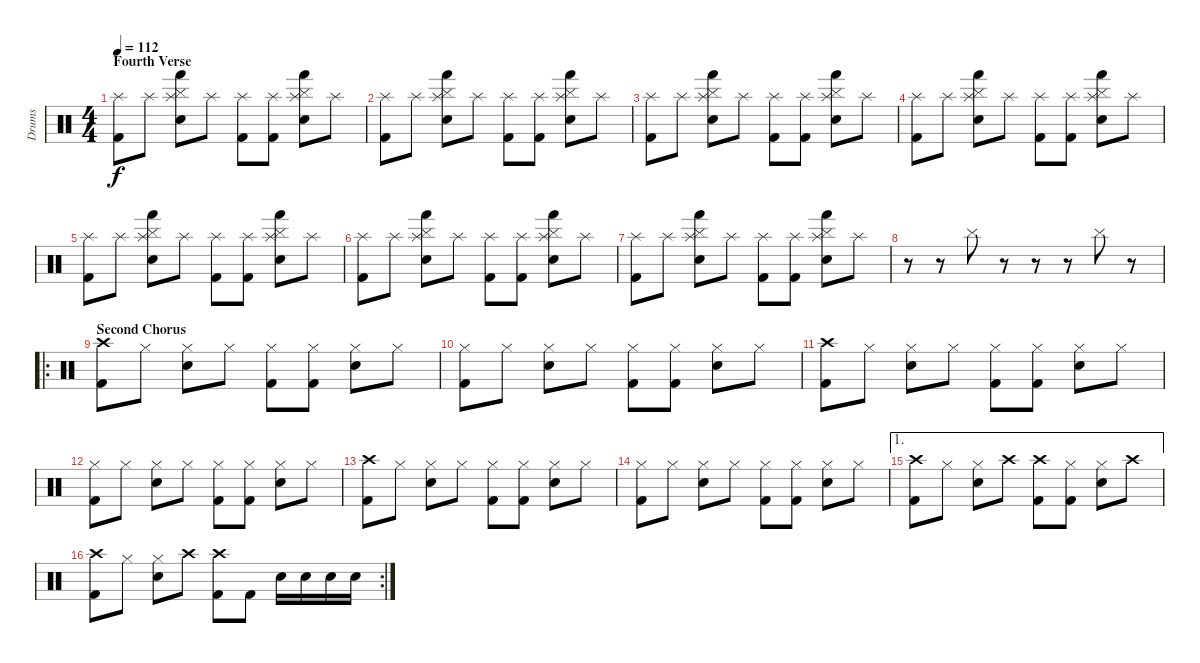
\track ("Drums" "Drums") {instrument percussion}
\staff {score}
\articulation defaults
\ts (4 4)
\section ("" "Fourth Verse")
\tempo 112
\clef neutral
\ks c
("Splash (hit)" "Kick (hit) 2").8{dy f} "Splash (hit)".8 ("Splash (hit)" "Hand (hit)" "Snare (hit) 2" "Cymbal (hit)").8 "Splash (hit)".8 ("Splash (hit)" "Kick (hit) 2").8 ("Splash (hit)" "Kick (hit) 2").8 ("Splash (hit)" "Cymbal (hit)" "Snare (hit) 2" "Hand (hit)").8 "Splash (hit)".8 |
("Splash (hit)" "Kick (hit) 2").8 "Splash (hit)".8 ("Splash (hit)" "Hand (hit)" "Snare (hit) 2" "Cymbal (hit)").8 "Splash (hit)".8 ("Splash (hit)" "Kick (hit) 2").8 ("Splash (hit)" "Kick (hit) 2").8 ("Splash (hit)" "Cymbal (hit)" "Snare (hit) 2" "Hand (hit)").8 "Splash (hit)".8 |
("Splash (hit)" "Kick (hit) 2").8 "Splash (hit)".8 ("Splash (hit)" "Hand (hit)" "Snare (hit) 2" "Cymbal (hit)").8 "Splash (hit)".8 ("Splash (hit)" "Kick (hit) 2").8 ("Splash (hit)" "Kick (hit) 2").8 ("Splash (hit)" "Cymbal (hit)" "Snare (hit) 2" "Hand (hit)").8 "Splash (hit)".8 |
("Splash (hit)" "Kick (hit) 2").8 "Splash (hit)".8 ("Splash (hit)" "Hand (hit)" "Snare (hit) 2" "Cymbal (hit)").8 "Splash (hit)".8 ("Splash (hit)" "Kick (hit) 2").8 ("Splash (hit)" "Kick (hit) 2").8 ("Splash (hit)" "Cymbal (hit)" "Snare (hit) 2" "Hand (hit)").8 "Splash (hit)".8 |
("Splash (hit)" "Kick (hit) 2").8 "Splash (hit)".8 ("Splash (hit)" "Hand (hit)" "Snare (hit) 2" "Cymbal (hit)").8 "Splash (hit)".8 ("Splash (hit)" "Kick (hit) 2").8 ("Splash (hit)" "Kick (hit) 2").8 ("Splash (hit)" "Cymbal (hit)" "Snare (hit) 2" "Hand (hit)").8 "Splash (hit)".8 |
("Splash (hit)" "Kick (hit) 2").8 "Splash (hit)".8 ("Splash (hit)" "Hand (hit)" "Snare (hit) 2" "Cymbal (hit)").8 "Splash (hit)".8 ("Splash (hit)" "Kick (hit) 2").8 ("Splash (hit)" "Kick (hit) 2").8 ("Splash (hit)" "Cymbal (hit)" "Snare (hit) 2" "Hand (hit)").8 "Splash (hit)".8 |
("Splash (hit)" "Kick (hit) 2").8 "Splash (hit)".8 ("Splash (hit)" "Hand (hit)" "Snare (hit) 2" "Cymbal (hit)").8 "Splash (hit)".8 ("Splash (hit)" "Kick (hit) 2").8 ("Splash (hit)" "Kick (hit) 2").8 ("Splash (hit)" "Cymbal (hit)" "Snare (hit) 2" "Hand (hit)").8 "Splash (hit)".8 |
r.8 r.8 "Cymbal (hit)".8 r.8 r.8 r.8 "Cymbal (hit)".8 r.8 |
\ro
\section ("" "Second Chorus")
("Crash high (hit)" "Kick (hit) 2").8 "Hi-Hat (closed)".8 ("Hi-Hat (closed)" "Electric Snare (hit)").8 "Hi-Hat (closed)".8 ("Hi-Hat (closed)" "Kick (hit) 2").8 ("Hi-Hat (closed)" "Kick (hit) 2").8 ("Hi-Hat (closed)" "Electric Snare (hit)").8 "Hi-Hat (closed)".8 |
("Hi-Hat (closed)" "Kick (hit) 2").8 "Hi-Hat (closed)".8 ("Hi-Hat (closed)" "Electric Snare (hit)").8 "Hi-Hat (closed)".8 ("Hi-Hat (closed)" "Kick (hit) 2").8 ("Hi-Hat (closed)" "Kick (hit) 2").8 ("Hi-Hat (closed)" "Electric Snare (hit)").8 "Hi-Hat (closed)".8 |
("Crash high (hit)" "Kick (hit) 2").8 "Hi-Hat (closed)".8 ("Hi-Hat (closed)" "Electric Snare (hit)").8 "Hi-Hat (closed)".8 ("Hi-Hat (closed)" "Kick (hit) 2").8 ("Hi-Hat (closed)" "Kick (hit) 2").8 ("Hi-Hat (closed)" "Electric Snare (hit)").8 "Hi-Hat (closed)".8 |
("Hi-Hat (closed)" "Kick (hit) 2").8 "Hi-Hat (closed)".8 ("Hi-Hat (closed)" "Electric Snare (hit)").8 "Hi-Hat (closed)".8 ("Hi-Hat (closed)" "Kick (hit) 2").8 ("Hi-Hat (closed)" "Kick (hit) 2").8 ("Hi-Hat (closed)" "Electric Snare (hit)").8 "Hi-Hat (closed)".8 |
("Crash high (hit)" "Kick (hit) 2").8 "Hi-Hat (closed)".8 ("Hi-Hat (closed)" "Electric Snare (hit)").8 "Hi-Hat (closed)".8 ("Hi-Hat (closed)" "Kick (hit) 2").8 ("Hi-Hat (closed)" "Kick (hit) 2").8 ("Hi-Hat (closed)" "Electric Snare (hit)").8 "Hi-Hat (closed)".8 |
("Hi-Hat (closed)" "Kick (hit) 2").8 "Hi-Hat (closed)".8 ("Hi-Hat (closed)" "Electric Snare (hit)").8 "Hi-Hat (closed)".8 ("Hi-Hat (closed)" "Kick (hit) 2").8 ("Hi-Hat (closed)" "Kick (hit) 2").8 ("Hi-Hat (closed)" "Electric Snare (hit)").8 "Hi-Hat (closed)".8 |
\ae 1
("Crash high (hit)" "Kick (hit) 2").8 "Hi-Hat (closed)".8 ("Hi-Hat (closed)" "Electric Snare (hit)").8 "Crash high (hit)".8 ("Crash high (hit)" "Kick (hit) 2").8 ("Hi-Hat (closed)" "Kick (hit) 2").8 ("Hi-Hat (closed)" "Electric Snare (hit)").8 "Crash high (hit)".8 |
\rc 2
("Crash high (hit)" "Kick (hit) 2").8 "Hi-Hat (closed)".8 ("Hi-Hat (closed)" "Electric Snare (hit)").8 "Crash high (hit)".8 ("Crash high (hit)" "Kick (hit) 2").8 "Kick (hit) 2".8 "Electric Snare (hit)".16 "Electric Snare (hit)".16 "Electric Snare (hit)".16 "Electric Snare (hit)".16
